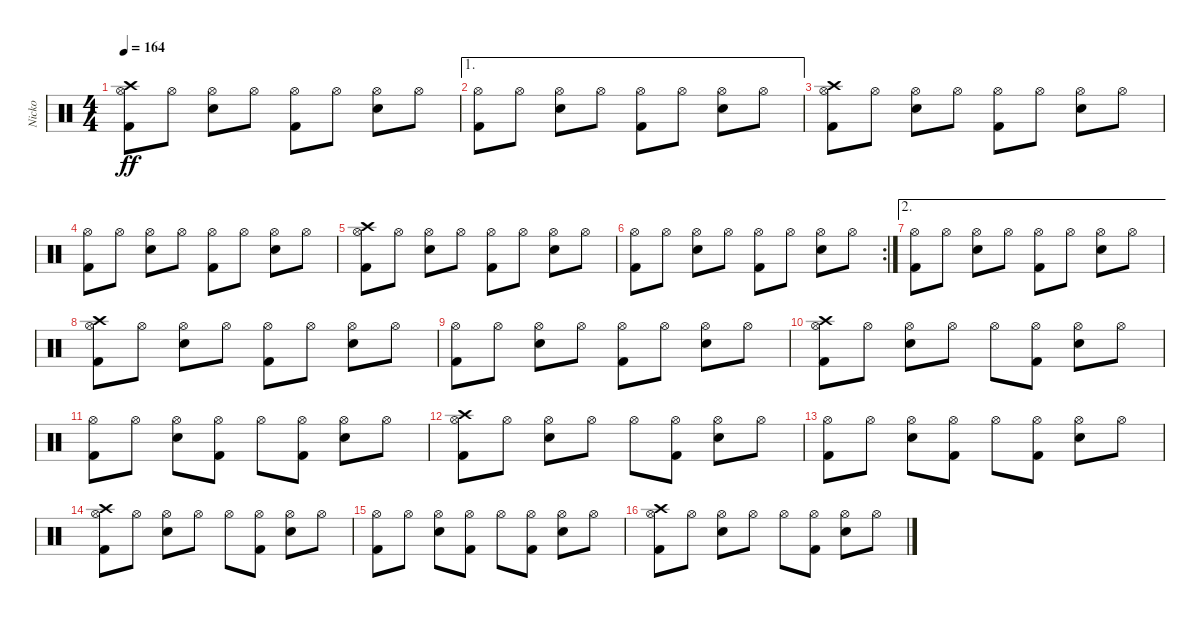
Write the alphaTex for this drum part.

\track ("Nicko" "Nicko") {instrument percussion}
\staff {score}
\articulation defaults
\ts (4 4)
\tempo 164
\clef neutral
\ks c
("Kick (hit) 2" "Hi-Hat (open)" "Crash high (hit)").8{dy ff} "Hi-Hat (open)".8 ("Snare (hit) 2" "Hi-Hat (open)").8 "Hi-Hat (open)".8 ("Kick (hit) 2" "Hi-Hat (open)").8 "Hi-Hat (open)".8 ("Snare (hit) 2" "Hi-Hat (open)").8 "Hi-Hat (open)".8 |
\ae 1
("Kick (hit) 2" "Hi-Hat (open)").8 "Hi-Hat (open)".8 ("Snare (hit) 2" "Hi-Hat (open)").8 "Hi-Hat (open)".8 ("Kick (hit) 2" "Hi-Hat (open)").8 "Hi-Hat (open)".8 ("Snare (hit) 2" "Hi-Hat (open)").8 "Hi-Hat (open)".8 |
("Kick (hit) 2" "Hi-Hat (open)" "Crash high (hit)").8 "Hi-Hat (open)".8 ("Snare (hit) 2" "Hi-Hat (open)").8 "Hi-Hat (open)".8 ("Kick (hit) 2" "Hi-Hat (open)").8 "Hi-Hat (open)".8 ("Snare (hit) 2" "Hi-Hat (open)").8 "Hi-Hat (open)".8 |
("Kick (hit) 2" "Hi-Hat (open)").8 "Hi-Hat (open)".8 ("Snare (hit) 2" "Hi-Hat (open)").8 "Hi-Hat (open)".8 ("Kick (hit) 2" "Hi-Hat (open)").8 "Hi-Hat (open)".8 ("Snare (hit) 2" "Hi-Hat (open)").8 "Hi-Hat (open)".8 |
("Kick (hit) 2" "Hi-Hat (open)" "Crash high (hit)").8 "Hi-Hat (open)".8 ("Snare (hit) 2" "Hi-Hat (open)").8 "Hi-Hat (open)".8 ("Kick (hit) 2" "Hi-Hat (open)").8 "Hi-Hat (open)".8 ("Snare (hit) 2" "Hi-Hat (open)").8 "Hi-Hat (open)".8 |
\rc 2
("Kick (hit) 2" "Hi-Hat (open)").8 "Hi-Hat (open)".8 ("Snare (hit) 2" "Hi-Hat (open)").8 "Hi-Hat (open)".8 ("Kick (hit) 2" "Hi-Hat (open)").8 "Hi-Hat (open)".8 ("Snare (hit) 2" "Hi-Hat (open)").8 "Hi-Hat (open)".8 |
\ae 2
("Kick (hit) 2" "Hi-Hat (open)").8 "Hi-Hat (open)".8 ("Snare (hit) 2" "Hi-Hat (open)").8 "Hi-Hat (open)".8 ("Kick (hit) 2" "Hi-Hat (open)").8 "Hi-Hat (open)".8 ("Snare (hit) 2" "Hi-Hat (open)").8 "Hi-Hat (open)".8 |
("Kick (hit) 2" "Hi-Hat (open)" "Crash high (hit)").8 "Hi-Hat (open)".8 ("Snare (hit) 2" "Hi-Hat (open)").8 "Hi-Hat (open)".8 ("Kick (hit) 2" "Hi-Hat (open)").8 "Hi-Hat (open)".8 ("Snare (hit) 2" "Hi-Hat (open)").8 "Hi-Hat (open)".8 |
("Kick (hit) 2" "Hi-Hat (open)").8 "Hi-Hat (open)".8 ("Snare (hit) 2" "Hi-Hat (open)").8 "Hi-Hat (open)".8 ("Kick (hit) 2" "Hi-Hat (open)").8 "Hi-Hat (open)".8 ("Snare (hit) 2" "Hi-Hat (open)").8 "Hi-Hat (open)".8 |
("Kick (hit) 2" "Hi-Hat (open)" "Crash high (hit)").8 "Hi-Hat (open)".8 ("Snare (hit) 2" "Hi-Hat (open)").8 "Hi-Hat (open)".8 "Hi-Hat (open)".8 ("Kick (hit) 2" "Hi-Hat (open)").8 ("Snare (hit) 2" "Hi-Hat (open)").8 "Hi-Hat (open)".8 |
("Kick (hit) 2" "Hi-Hat (open)").8 "Hi-Hat (open)".8 ("Snare (hit) 2" "Hi-Hat (open)").8 ("Kick (hit) 2" "Hi-Hat (open)").8 "Hi-Hat (open)".8 ("Kick (hit) 2" "Hi-Hat (open)").8 ("Snare (hit) 2" "Hi-Hat (open)").8 "Hi-Hat (open)".8 |
("Kick (hit) 2" "Hi-Hat (open)" "Crash high (hit)").8 "Hi-Hat (open)".8 ("Snare (hit) 2" "Hi-Hat (open)").8 "Hi-Hat (open)".8 "Hi-Hat (open)".8 ("Kick (hit) 2" "Hi-Hat (open)").8 ("Snare (hit) 2" "Hi-Hat (open)").8 "Hi-Hat (open)".8 |
("Kick (hit) 2" "Hi-Hat (open)").8 "Hi-Hat (open)".8 ("Snare (hit) 2" "Hi-Hat (open)").8 ("Kick (hit) 2" "Hi-Hat (open)").8 "Hi-Hat (open)".8 ("Kick (hit) 2" "Hi-Hat (open)").8 ("Snare (hit) 2" "Hi-Hat (open)").8 "Hi-Hat (open)".8 |
("Kick (hit) 2" "Hi-Hat (open)" "Crash high (hit)").8 "Hi-Hat (open)".8 ("Snare (hit) 2" "Hi-Hat (open)").8 "Hi-Hat (open)".8 "Hi-Hat (open)".8 ("Kick (hit) 2" "Hi-Hat (open)").8 ("Snare (hit) 2" "Hi-Hat (open)").8 "Hi-Hat (open)".8 |
("Kick (hit) 2" "Hi-Hat (open)").8 "Hi-Hat (open)".8 ("Snare (hit) 2" "Hi-Hat (open)").8 ("Kick (hit) 2" "Hi-Hat (open)").8 "Hi-Hat (open)".8 ("Kick (hit) 2" "Hi-Hat (open)").8 ("Snare (hit) 2" "Hi-Hat (open)").8 "Hi-Hat (open)".8 |
("Kick (hit) 2" "Hi-Hat (open)" "Crash high (hit)").8 "Hi-Hat (open)".8 ("Snare (hit) 2" "Hi-Hat (open)").8 "Hi-Hat (open)".8 "Hi-Hat (open)".8 ("Kick (hit) 2" "Hi-Hat (open)").8 ("Snare (hit) 2" "Hi-Hat (open)").8 "Hi-Hat (open)".8
